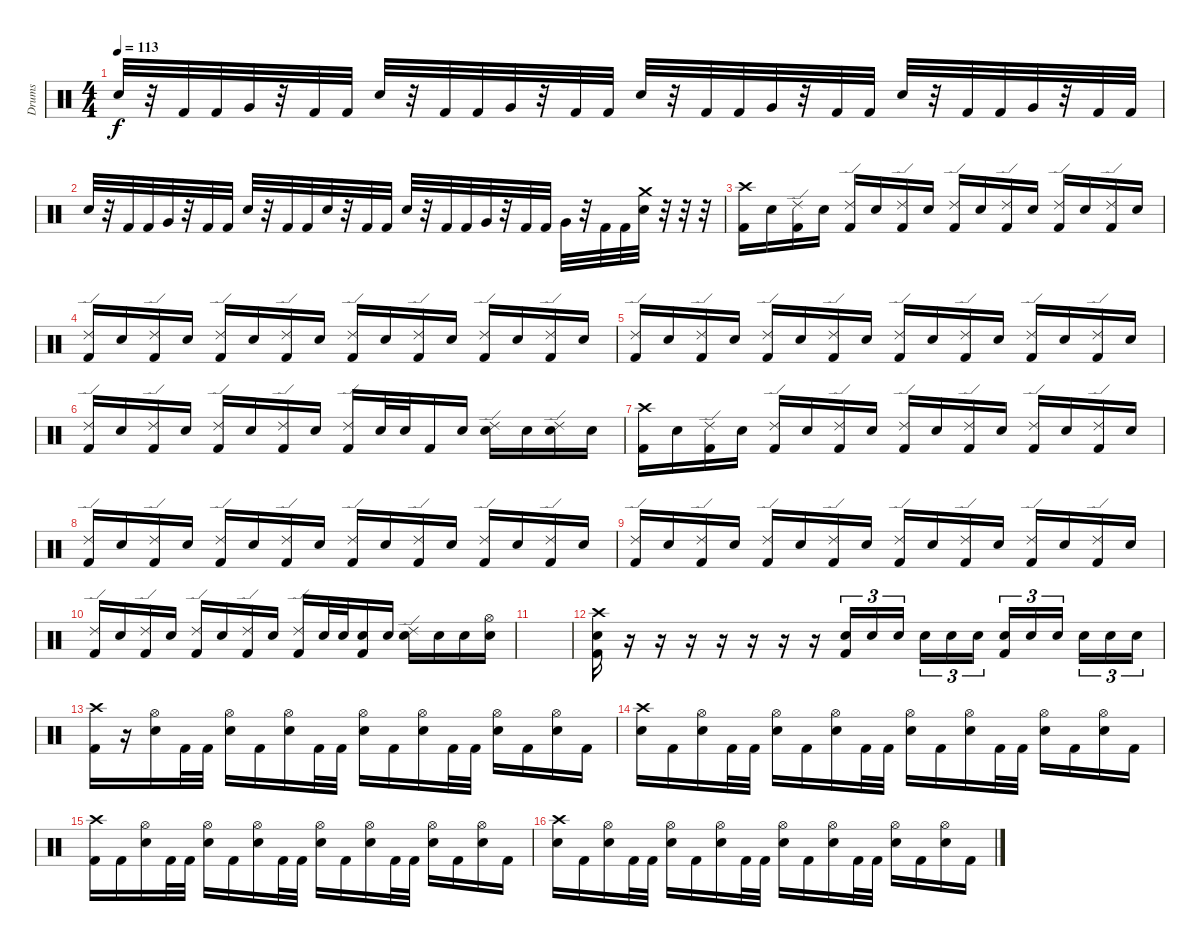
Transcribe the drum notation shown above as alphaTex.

\track ("Drums" "Drums") {instrument percussion}
\staff {score}
\articulation defaults
\ts (4 4)
\tempo 113
\clef neutral
\ks c "Electric Snare (hit)".32{dy f}
r.32 "Kick (hit) 2".32 "Kick (hit) 2".32 "Very Low Tom (hit)".32 r.32 "Kick (hit) 2".32 "Kick (hit) 2".32 "Electric Snare (hit)".32 r.32 "Kick (hit) 2".32 "Kick (hit) 2".32 "Very Low Tom (hit)".32 r.32 "Kick (hit) 2".32 "Kick (hit) 2".32 "Electric Snare (hit)".32 r.32 "Kick (hit) 2".32 "Kick (hit) 2".32 "Very Low Tom (hit)".32 r.32 "Kick (hit) 2".32 "Kick (hit) 2".32 "Electric Snare (hit)".32 r.32 "Kick (hit) 2".32 "Kick (hit) 2".32 "Very Low Tom (hit)".32 r.32 "Kick (hit) 2".32 "Kick (hit) 2".32 |
"Electric Snare (hit)".32 r.32 "Kick (hit) 2".32 "Kick (hit) 2".32 "Very Low Tom (hit)".32 r.32 "Kick (hit) 2".32 "Kick (hit) 2".32 "Electric Snare (hit)".32 r.32 "Kick (hit) 2".32 "Kick (hit) 2".32 "Electric Snare (hit)".32 r.32 "Kick (hit) 2".32 "Kick (hit) 2".32 "Electric Snare (hit)".32 r.32 "Kick (hit) 2".32 "Kick (hit) 2".32 "Very Low Tom (hit)".32 r.32 "Kick (hit) 2".32 "Kick (hit) 2".32 "Very Low Tom (hit)".32 r.32 "Kick (hit) 2".32 "Kick (hit) 2".32 ("Electric Snare (hit)" "Crash medium (hit)").32 r.32 r.32 r.32 |
("Kick (hit) 2" "Crash high (hit)").16 "Electric Snare (hit)".16 ("Kick (hit) 2" "Ride (edge) 2").16 "Electric Snare (hit)".16 ("Kick (hit) 2" "Ride (edge) 2").16 "Electric Snare (hit)".16 ("Kick (hit) 2" "Ride (edge) 2").16 "Electric Snare (hit)".16 ("Kick (hit) 2" "Ride (edge) 2").16 "Electric Snare (hit)".16 ("Kick (hit) 2" "Ride (edge) 2").16 "Electric Snare (hit)".16 ("Kick (hit) 2" "Ride (edge) 2").16 "Electric Snare (hit)".16 ("Kick (hit) 2" "Ride (edge) 2").16 "Electric Snare (hit)".16 |
("Kick (hit) 2" "Ride (edge) 2").16 "Electric Snare (hit)".16 ("Kick (hit) 2" "Ride (edge) 2").16 "Electric Snare (hit)".16 ("Kick (hit) 2" "Ride (edge) 2").16 "Electric Snare (hit)".16 ("Kick (hit) 2" "Ride (edge) 2").16 "Electric Snare (hit)".16 ("Kick (hit) 2" "Ride (edge) 2").16 "Electric Snare (hit)".16 ("Kick (hit) 2" "Ride (edge) 2").16 "Electric Snare (hit)".16 ("Kick (hit) 2" "Ride (edge) 2").16 "Electric Snare (hit)".16 ("Kick (hit) 2" "Ride (edge) 2").16 "Electric Snare (hit)".16 |
("Kick (hit) 2" "Ride (edge) 2").16 "Electric Snare (hit)".16 ("Kick (hit) 2" "Ride (edge) 2").16 "Electric Snare (hit)".16 ("Kick (hit) 2" "Ride (edge) 2").16 "Electric Snare (hit)".16 ("Kick (hit) 2" "Ride (edge) 2").16 "Electric Snare (hit)".16 ("Kick (hit) 2" "Ride (edge) 2").16 "Electric Snare (hit)".16 ("Kick (hit) 2" "Ride (edge) 2").16 "Electric Snare (hit)".16 ("Kick (hit) 2" "Ride (edge) 2").16 "Electric Snare (hit)".16 ("Kick (hit) 2" "Ride (edge) 2").16 "Electric Snare (hit)".16 |
("Kick (hit) 2" "Ride (edge) 2").16 "Electric Snare (hit)".16 ("Kick (hit) 2" "Ride (edge) 2").16 "Electric Snare (hit)".16 ("Kick (hit) 2" "Ride (edge) 2").16 "Electric Snare (hit)".16 ("Kick (hit) 2" "Ride (edge) 2").16 "Electric Snare (hit)".16 ("Kick (hit) 2" "Ride (edge) 2").16 "Electric Snare (hit)".32 "Electric Snare (hit)".32 "Kick (hit) 2".16 "Electric Snare (hit)".16 ("Electric Snare (hit)" "Ride (edge) 2").16 "Electric Snare (hit)".16 ("Electric Snare (hit)" "Ride (edge) 2").16 "Electric Snare (hit)".16 |
("Kick (hit) 2" "Crash high (hit)").16 "Electric Snare (hit)".16 ("Kick (hit) 2" "Ride (edge) 2").16 "Electric Snare (hit)".16 ("Kick (hit) 2" "Ride (edge) 2").16 "Electric Snare (hit)".16 ("Kick (hit) 2" "Ride (edge) 2").16 "Electric Snare (hit)".16 ("Kick (hit) 2" "Ride (edge) 2").16 "Electric Snare (hit)".16 ("Kick (hit) 2" "Ride (edge) 2").16 "Electric Snare (hit)".16 ("Kick (hit) 2" "Ride (edge) 2").16 "Electric Snare (hit)".16 ("Kick (hit) 2" "Ride (edge) 2").16 "Electric Snare (hit)".16 |
("Kick (hit) 2" "Ride (edge) 2").16 "Electric Snare (hit)".16 ("Kick (hit) 2" "Ride (edge) 2").16 "Electric Snare (hit)".16 ("Kick (hit) 2" "Ride (edge) 2").16 "Electric Snare (hit)".16 ("Kick (hit) 2" "Ride (edge) 2").16 "Electric Snare (hit)".16 ("Kick (hit) 2" "Ride (edge) 2").16 "Electric Snare (hit)".16 ("Kick (hit) 2" "Ride (edge) 2").16 "Electric Snare (hit)".16 ("Kick (hit) 2" "Ride (edge) 2").16 "Electric Snare (hit)".16 ("Kick (hit) 2" "Ride (edge) 2").16 "Electric Snare (hit)".16 |
("Kick (hit) 2" "Ride (edge) 2").16 "Electric Snare (hit)".16 ("Kick (hit) 2" "Ride (edge) 2").16 "Electric Snare (hit)".16 ("Kick (hit) 2" "Ride (edge) 2").16 "Electric Snare (hit)".16 ("Kick (hit) 2" "Ride (edge) 2").16 "Electric Snare (hit)".16 ("Kick (hit) 2" "Ride (edge) 2").16 "Electric Snare (hit)".16 ("Kick (hit) 2" "Ride (edge) 2").16 "Electric Snare (hit)".16 ("Kick (hit) 2" "Ride (edge) 2").16 "Electric Snare (hit)".16 ("Kick (hit) 2" "Ride (edge) 2").16 "Electric Snare (hit)".16 |
("Kick (hit) 2" "Ride (edge) 2").16 "Electric Snare (hit)".16 ("Kick (hit) 2" "Ride (edge) 2").16 "Electric Snare (hit)".16 ("Kick (hit) 2" "Ride (edge) 2").16 "Electric Snare (hit)".16 ("Kick (hit) 2" "Ride (edge) 2").16 "Electric Snare (hit)".16 ("Kick (hit) 2" "Ride (edge) 2").16 "Electric Snare (hit)".32 "Electric Snare (hit)".32 ("Kick (hit) 2" "Electric Snare (hit)").16 "Electric Snare (hit)".16 ("Electric Snare (hit)" "Ride (edge) 2").16 "Electric Snare (hit)".16 "Electric Snare (hit)".16 ("Electric Snare (hit)" "Hi-Hat (open)").16 |
|
("Kick (hit) 2" "Electric Snare (hit)" "Crash high (hit)").16 r.16 r.16 r.16 r.16 r.16 r.16 r.16 ("Electric Snare (hit)" "Kick (hit) 2").16{tu (3 2)} "Electric Snare (hit)".16{tu (3 2)} "Electric Snare (hit)".16{tu (3 2)} "Electric Snare (hit)".16{tu (3 2)} "Electric Snare (hit)".16{tu (3 2)} "Electric Snare (hit)".16{tu (3 2)} ("Electric Snare (hit)" "Kick (hit) 2").16{tu (3 2)} "Electric Snare (hit)".16{tu (3 2)} "Electric Snare (hit)".16{tu (3 2)} "Electric Snare (hit)".16{tu (3 2)} "Electric Snare (hit)".16{tu (3 2)} "Electric Snare (hit)".16{tu (3 2)} |
("Kick (hit) 2" "Crash high (hit)").16 r.16 ("Hi-Hat (open)" "Electric Snare (hit)").16 "Kick (hit) 2".32 "Kick (hit) 2".32 ("Hi-Hat (open)" "Electric Snare (hit)").16 "Kick (hit) 2".16 ("Hi-Hat (open)" "Electric Snare (hit)").16 "Kick (hit) 2".32 "Kick (hit) 2".32 ("Hi-Hat (open)" "Electric Snare (hit)").16 "Kick (hit) 2".16 ("Hi-Hat (open)" "Electric Snare (hit)").16 "Kick (hit) 2".32 "Kick (hit) 2".32 ("Hi-Hat (open)" "Electric Snare (hit)").16 "Kick (hit) 2".16 ("Hi-Hat (open)" "Electric Snare (hit)").16 "Kick (hit) 2".16 |
("Crash high (hit)" "Electric Snare (hit)").16 "Kick (hit) 2".16 ("Hi-Hat (open)" "Electric Snare (hit)").16 "Kick (hit) 2".32 "Kick (hit) 2".32 ("Hi-Hat (open)" "Electric Snare (hit)").16 "Kick (hit) 2".16 ("Hi-Hat (open)" "Electric Snare (hit)").16 "Kick (hit) 2".32 "Kick (hit) 2".32 ("Hi-Hat (open)" "Electric Snare (hit)").16 "Kick (hit) 2".16 ("Hi-Hat (open)" "Electric Snare (hit)").16 "Kick (hit) 2".32 "Kick (hit) 2".32 ("Hi-Hat (open)" "Electric Snare (hit)").16 "Kick (hit) 2".16 ("Hi-Hat (open)" "Electric Snare (hit)").16 "Kick (hit) 2".16 |
("Kick (hit) 2" "Crash high (hit)").16 "Kick (hit) 2".16 ("Hi-Hat (open)" "Electric Snare (hit)").16 "Kick (hit) 2".32 "Kick (hit) 2".32 ("Hi-Hat (open)" "Electric Snare (hit)").16 "Kick (hit) 2".16 ("Hi-Hat (open)" "Electric Snare (hit)").16 "Kick (hit) 2".32 "Kick (hit) 2".32 ("Hi-Hat (open)" "Electric Snare (hit)").16 "Kick (hit) 2".16 ("Hi-Hat (open)" "Electric Snare (hit)").16 "Kick (hit) 2".32 "Kick (hit) 2".32 ("Hi-Hat (open)" "Electric Snare (hit)").16 "Kick (hit) 2".16 ("Hi-Hat (open)" "Electric Snare (hit)").16 "Kick (hit) 2".16 |
("Crash high (hit)" "Electric Snare (hit)").16 "Kick (hit) 2".16 ("Hi-Hat (open)" "Electric Snare (hit)").16 "Kick (hit) 2".32 "Kick (hit) 2".32 ("Hi-Hat (open)" "Electric Snare (hit)").16 "Kick (hit) 2".16 ("Hi-Hat (open)" "Electric Snare (hit)").16 "Kick (hit) 2".32 "Kick (hit) 2".32 ("Hi-Hat (open)" "Electric Snare (hit)").16 "Kick (hit) 2".16 ("Hi-Hat (open)" "Electric Snare (hit)").16 "Kick (hit) 2".32 "Kick (hit) 2".32 ("Hi-Hat (open)" "Electric Snare (hit)").16 "Kick (hit) 2".16 ("Hi-Hat (open)" "Electric Snare (hit)").16 "Kick (hit) 2".16
